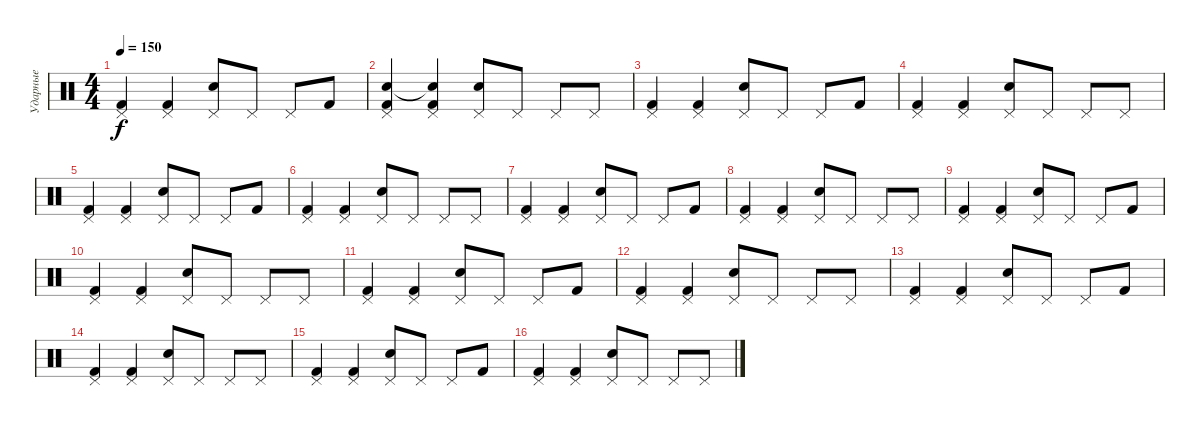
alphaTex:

\track ("Ударные" "Ударные") {instrument percussion}
\staff {score}
\articulation defaults
\ts (4 4)
\tempo 150
\clef neutral
\ks c
("Pedal Hi-Hat (hit)" "Kick (hit) 2").4{dy f} ("Pedal Hi-Hat (hit)" "Kick (hit) 2").4 ("Pedal Hi-Hat (hit)" "Snare (hit) 2").8 "Pedal Hi-Hat (hit)".8 "Pedal Hi-Hat (hit)".8 "Kick (hit) 2".8 |
("Metronome (bell)" "Pedal Hi-Hat (hit)" "Kick (hit) 2").4 ("Snare (hit)"{t} "Pedal Hi-Hat (hit)" "Kick (hit) 2").4 ("Pedal Hi-Hat (hit)" "Snare (hit) 2").8 "Pedal Hi-Hat (hit)".8 "Pedal Hi-Hat (hit)".8 "Pedal Hi-Hat (hit)".8 |
("Pedal Hi-Hat (hit)" "Kick (hit) 2").4 ("Pedal Hi-Hat (hit)" "Kick (hit) 2").4 ("Pedal Hi-Hat (hit)" "Snare (hit) 2").8 "Pedal Hi-Hat (hit)".8 "Pedal Hi-Hat (hit)".8 "Kick (hit) 2".8 |
("Pedal Hi-Hat (hit)" "Kick (hit) 2").4 ("Pedal Hi-Hat (hit)" "Kick (hit) 2").4 ("Pedal Hi-Hat (hit)" "Snare (hit) 2").8 "Pedal Hi-Hat (hit)".8 "Pedal Hi-Hat (hit)".8 "Pedal Hi-Hat (hit)".8 |
("Pedal Hi-Hat (hit)" "Kick (hit) 2").4 ("Pedal Hi-Hat (hit)" "Kick (hit) 2").4 ("Pedal Hi-Hat (hit)" "Snare (hit) 2").8 "Pedal Hi-Hat (hit)".8 "Pedal Hi-Hat (hit)".8 "Kick (hit) 2".8 |
("Pedal Hi-Hat (hit)" "Kick (hit) 2").4 ("Pedal Hi-Hat (hit)" "Kick (hit) 2").4 ("Pedal Hi-Hat (hit)" "Snare (hit) 2").8 "Pedal Hi-Hat (hit)".8 "Pedal Hi-Hat (hit)".8 "Pedal Hi-Hat (hit)".8 |
("Pedal Hi-Hat (hit)" "Kick (hit) 2").4 ("Pedal Hi-Hat (hit)" "Kick (hit) 2").4 ("Pedal Hi-Hat (hit)" "Snare (hit) 2").8 "Pedal Hi-Hat (hit)".8 "Pedal Hi-Hat (hit)".8 "Kick (hit) 2".8 |
("Pedal Hi-Hat (hit)" "Kick (hit) 2").4 ("Pedal Hi-Hat (hit)" "Kick (hit) 2").4 ("Pedal Hi-Hat (hit)" "Snare (hit) 2").8 "Pedal Hi-Hat (hit)".8 "Pedal Hi-Hat (hit)".8 "Pedal Hi-Hat (hit)".8 |
("Pedal Hi-Hat (hit)" "Kick (hit) 2").4 ("Pedal Hi-Hat (hit)" "Kick (hit) 2").4 ("Pedal Hi-Hat (hit)" "Snare (hit) 2").8 "Pedal Hi-Hat (hit)".8 "Pedal Hi-Hat (hit)".8 "Kick (hit) 2".8 |
("Pedal Hi-Hat (hit)" "Kick (hit) 2").4 ("Pedal Hi-Hat (hit)" "Kick (hit) 2").4 ("Pedal Hi-Hat (hit)" "Snare (hit) 2").8 "Pedal Hi-Hat (hit)".8 "Pedal Hi-Hat (hit)".8 "Pedal Hi-Hat (hit)".8 |
("Pedal Hi-Hat (hit)" "Kick (hit) 2").4 ("Pedal Hi-Hat (hit)" "Kick (hit) 2").4 ("Pedal Hi-Hat (hit)" "Snare (hit) 2").8 "Pedal Hi-Hat (hit)".8 "Pedal Hi-Hat (hit)".8 "Kick (hit) 2".8 |
("Pedal Hi-Hat (hit)" "Kick (hit) 2").4 ("Pedal Hi-Hat (hit)" "Kick (hit) 2").4 ("Pedal Hi-Hat (hit)" "Snare (hit) 2").8 "Pedal Hi-Hat (hit)".8 "Pedal Hi-Hat (hit)".8 "Pedal Hi-Hat (hit)".8 |
("Pedal Hi-Hat (hit)" "Kick (hit) 2").4 ("Pedal Hi-Hat (hit)" "Kick (hit) 2").4 ("Pedal Hi-Hat (hit)" "Snare (hit) 2").8 "Pedal Hi-Hat (hit)".8 "Pedal Hi-Hat (hit)".8 "Kick (hit) 2".8 |
("Pedal Hi-Hat (hit)" "Kick (hit) 2").4 ("Pedal Hi-Hat (hit)" "Kick (hit) 2").4 ("Pedal Hi-Hat (hit)" "Snare (hit) 2").8 "Pedal Hi-Hat (hit)".8 "Pedal Hi-Hat (hit)".8 "Pedal Hi-Hat (hit)".8 |
("Pedal Hi-Hat (hit)" "Kick (hit) 2").4 ("Pedal Hi-Hat (hit)" "Kick (hit) 2").4 ("Pedal Hi-Hat (hit)" "Snare (hit) 2").8 "Pedal Hi-Hat (hit)".8 "Pedal Hi-Hat (hit)".8 "Kick (hit) 2".8 |
("Pedal Hi-Hat (hit)" "Kick (hit) 2").4 ("Pedal Hi-Hat (hit)" "Kick (hit) 2").4 ("Pedal Hi-Hat (hit)" "Snare (hit) 2").8 "Pedal Hi-Hat (hit)".8 "Pedal Hi-Hat (hit)".8 "Pedal Hi-Hat (hit)".8
